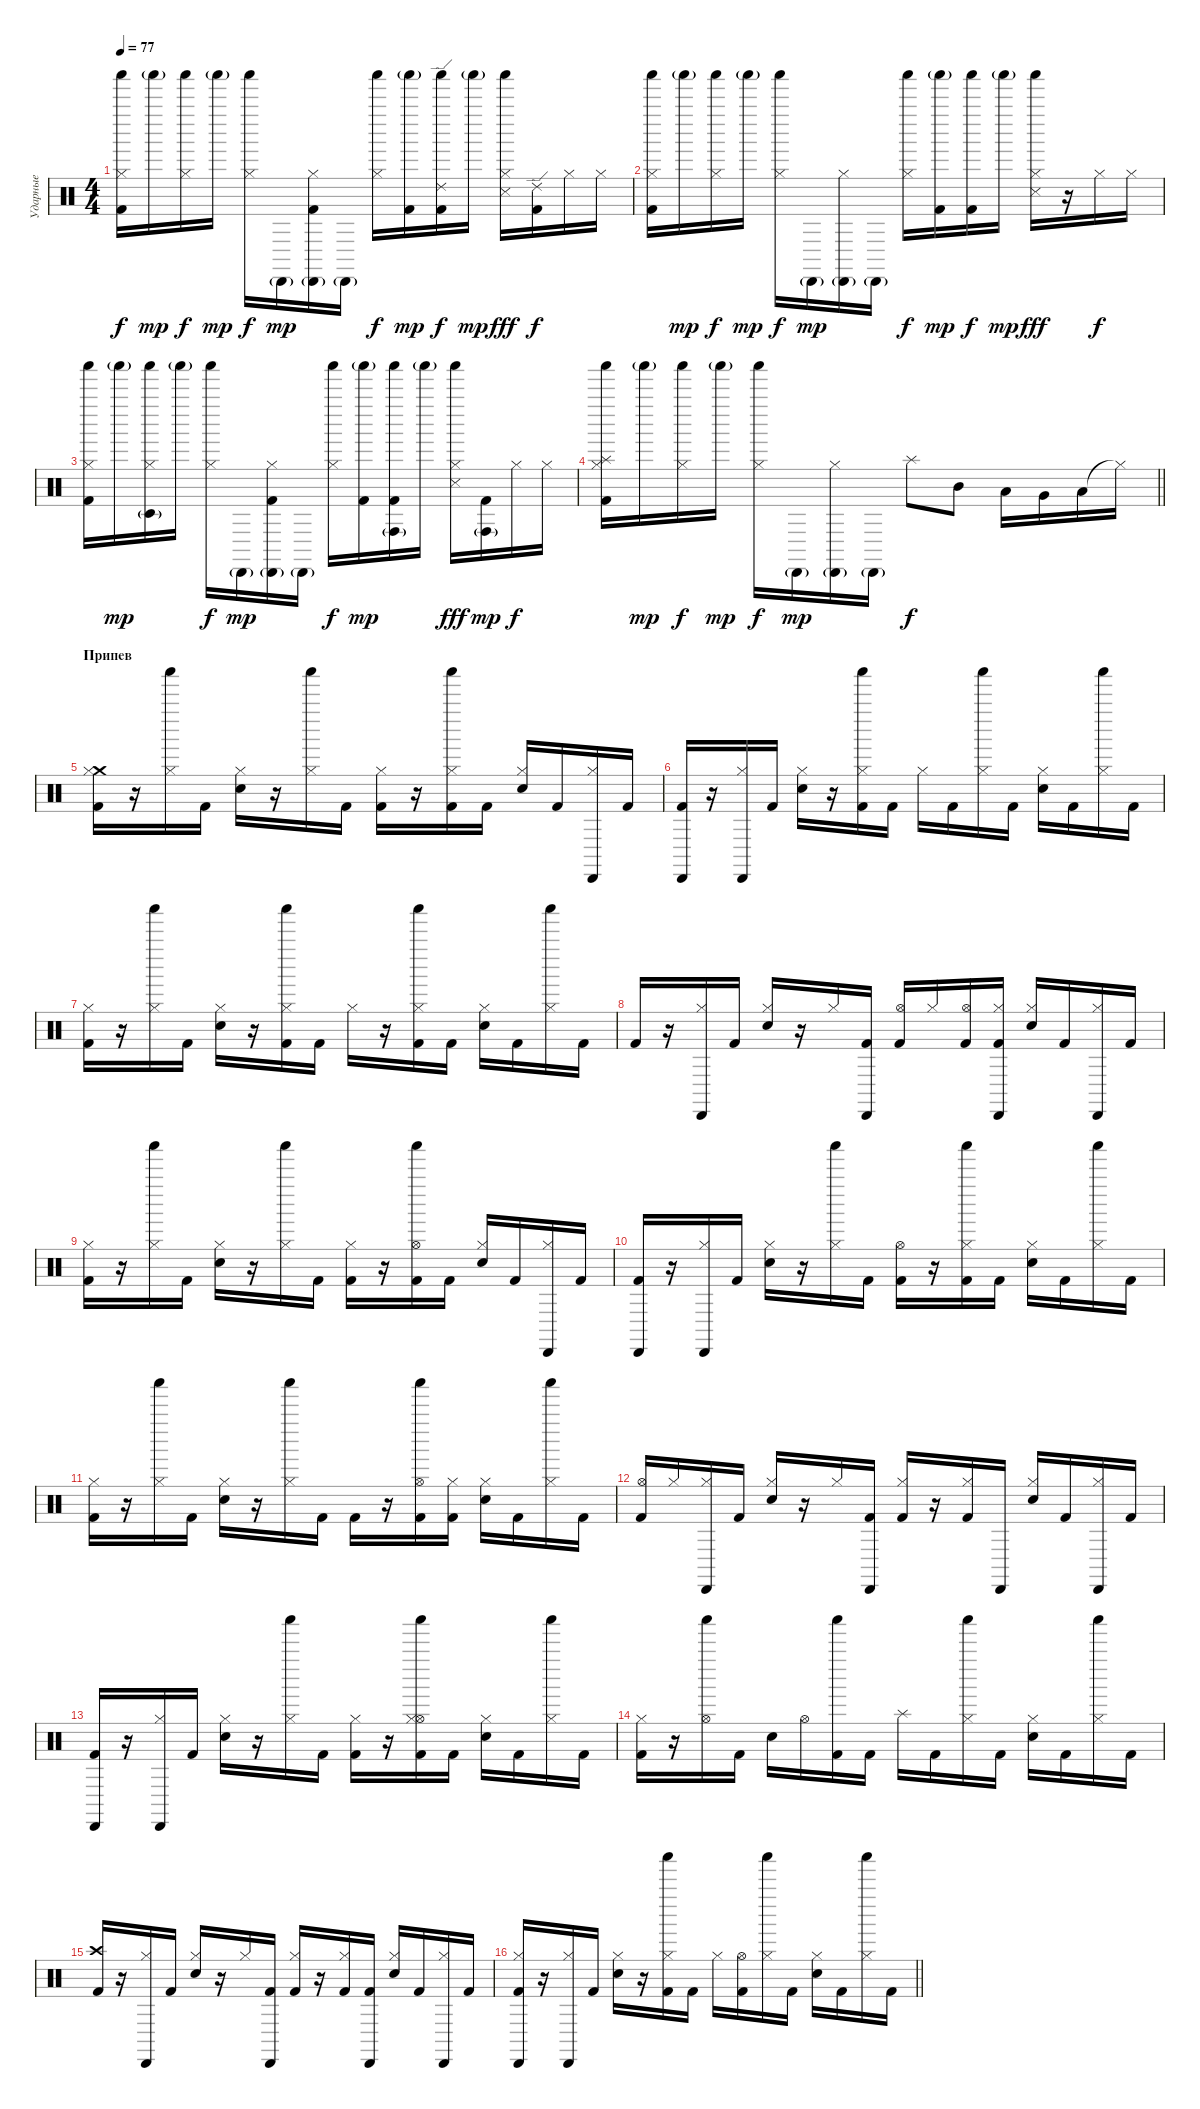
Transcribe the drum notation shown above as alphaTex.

\track ("Ударные" "Ударные") {instrument percussion}
\staff {score}
\articulation defaults
\ts (4 4)
\tempo 77
\clef neutral
\ks c
("Kick (hit) 2" "Shaker (hit)" "Hi-Hat (closed)").16{dy f} "Shaker (hit)"{g}.16{dy mp} ("Shaker (hit)" "Hi-Hat (closed)").16{dy f} "Shaker (hit)"{g}.16{dy mp} ("Shaker (hit)" "Hi-Hat (closed)").16{dy f} "Cabasa (hit)"{g}.16{dy mp} ("Kick (hit) 2" "Cabasa (hit)"{g} "Hi-Hat (closed)").16 "Cabasa (hit)"{g}.16 ("Shaker (hit)" "Hi-Hat (closed)").16{dy f} ("Shaker (hit)"{g} "Kick (hit) 2").16{dy mp} ("Ride (edge) 2" "Shaker (hit)" "Kick (hit) 2").16{dy f} "Shaker (hit)"{g}.16{dy mp} ("Snare (side stick) 3" "Shaker (hit)" "Hi-Hat (closed)").16{dy fff} ("Ride (edge) 2" "Kick (hit) 2").16{dy f} "Hi-Hat (closed)".16 "Hi-Hat (closed)".16 |
("Kick (hit) 2" "Shaker (hit)" "Hi-Hat (closed)").16 "Shaker (hit)"{g}.16{dy mp} ("Shaker (hit)" "Hi-Hat (closed)").16{dy f} "Shaker (hit)"{g}.16{dy mp} ("Shaker (hit)" "Hi-Hat (closed)").16{dy f} "Cabasa (hit)"{g}.16{dy mp} ("Cabasa (hit)"{g} "Hi-Hat (closed)").16 "Cabasa (hit)"{g}.16 ("Shaker (hit)" "Hi-Hat (closed)").16{dy f} ("Shaker (hit)"{g} "Kick (hit) 2").16{dy mp} ("Shaker (hit)" "Kick (hit) 2").16{dy f} "Shaker (hit)"{g}.16{dy mp} ("Snare (side stick) 3" "Shaker (hit)" "Hi-Hat (closed)").16{dy fff} r.16 "Hi-Hat (closed)".16{dy f} "Hi-Hat (closed)".16 |
("Kick (hit) 2" "Shaker (hit)" "Hi-Hat (closed)").16 "Shaker (hit)"{g}.16{dy mp} ("Timbale low (hit)"{g} "Shaker (hit)" "Hi-Hat (closed)").16 "Shaker (hit)"{g}.16 ("Shaker (hit)" "Hi-Hat (closed)").16{dy f} "Cabasa (hit)"{g}.16{dy mp} ("Kick (hit) 2" "Cabasa (hit)"{g} "Hi-Hat (closed)").16 "Cabasa (hit)"{g}.16 ("Shaker (hit)" "Hi-Hat (closed)").16{dy f} ("Shaker (hit)"{g} "Kick (hit) 2").16{dy mp} ("Conga high (hit)"{g} "Shaker (hit)" "Kick (hit) 2").16 "Shaker (hit)"{g}.16 ("Snare (side stick) 3" "Shaker (hit)" "Hi-Hat (closed)").16{dy fff} ("Conga high (hit)"{g} "Kick (hit) 2").16{dy mp} "Hi-Hat (closed)".16{dy f} "Hi-Hat (closed)".16 |
\barLineRight lightlight
("Splash (hit)" "Kick (hit) 2" "Shaker (hit)" "Hi-Hat (closed)").16 "Shaker (hit)"{g}.16{dy mp} ("Shaker (hit)" "Hi-Hat (closed)").16{dy f} "Shaker (hit)"{g}.16{dy mp} ("Shaker (hit)" "Hi-Hat (closed)").16{dy f} "Cabasa (hit)"{g}.16{dy mp} ("Cabasa (hit)"{g} "Hi-Hat (closed)").16 "Cabasa (hit)"{g}.16 "Splash (hit)".8{dy f} "Mid Tom (hit)".8 "Low Tom (hit)".16 "Very Low Tom (hit)".16 "Low Floor Tom (hit)".16 "Hi-Hat (closed)"{t}.16 |
\section ("" "Припев")
("Crash medium (hit)" "Kick (hit) 2" "Hi-Hat (closed)").16 r.16 ("Hi-Hat (closed)" "Shaker (hit)").16 "Kick (hit) 2".16 ("Electric Snare (hit)" "Hi-Hat (closed)").16 r.16 ("Hi-Hat (closed)" "Shaker (hit)").16 "Kick (hit) 2".16 ("Kick (hit) 2" "Hi-Hat (closed)").16 r.16 ("Kick (hit) 2" "Hi-Hat (closed)" "Shaker (hit)").16 "Kick (hit) 2".16 ("Electric Snare (hit)" "Hi-Hat (closed)").16 "Kick (hit) 2".16 ("Hi-Hat (closed)" "Cabasa (hit)").16 "Kick (hit) 2".16 |
("Kick (hit) 2" "Cabasa (hit)").16 r.16 ("Hi-Hat (closed)" "Cabasa (hit)").16 "Kick (hit) 2".16 ("Electric Snare (hit)" "Hi-Hat (closed)").16 r.16 ("Kick (hit) 2" "Hi-Hat (closed)" "Shaker (hit)").16 "Kick (hit) 2".16 "Hi-Hat (closed)".16 "Kick (hit) 2".16 ("Hi-Hat (closed)" "Shaker (hit)").16 "Kick (hit) 2".16 ("Electric Snare (hit)" "Hi-Hat (closed)").16 "Kick (hit) 2".16 ("Hi-Hat (closed)" "Shaker (hit)").16 "Kick (hit) 2".16 |
("Kick (hit) 2" "Hi-Hat (closed)").16 r.16 ("Hi-Hat (closed)" "Shaker (hit)").16 "Kick (hit) 2".16 ("Electric Snare (hit)" "Hi-Hat (closed)").16 r.16 ("Kick (hit) 2" "Hi-Hat (closed)" "Shaker (hit)").16 "Kick (hit) 2".16 "Hi-Hat (closed)".16 r.16 ("Kick (hit) 2" "Hi-Hat (closed)" "Shaker (hit)").16 "Kick (hit) 2".16 ("Electric Snare (hit)" "Hi-Hat (closed)").16 "Kick (hit) 2".16 ("Hi-Hat (closed)" "Shaker (hit)").16 "Kick (hit) 2".16 |
"Kick (hit) 2".16 r.16 ("Hi-Hat (closed)" "Cabasa (hit)").16 "Kick (hit) 2".16 ("Electric Snare (hit)" "Hi-Hat (closed)").16 r.16 "Hi-Hat (closed)".16 ("Kick (hit) 2" "Cabasa (hit)").16 ("Hi-Hat (open)" "Kick (hit) 2").16 "Hi-Hat (closed)".16 ("Hi-Hat (open)" "Kick (hit) 2").16 ("Hi-Hat (closed)" "Kick (hit) 2" "Cabasa (hit)").16 ("Electric Snare (hit)" "Hi-Hat (closed)").16 "Kick (hit) 2".16 ("Hi-Hat (closed)" "Cabasa (hit)").16 "Kick (hit) 2".16 |
("Kick (hit) 2" "Hi-Hat (closed)").16 r.16 ("Hi-Hat (closed)" "Shaker (hit)").16 "Kick (hit) 2".16 ("Electric Snare (hit)" "Hi-Hat (closed)").16 r.16 ("Hi-Hat (closed)" "Shaker (hit)").16 "Kick (hit) 2".16 ("Kick (hit) 2" "Hi-Hat (closed)").16 r.16 ("Hi-Hat (open)" "Kick (hit) 2" "Shaker (hit)").16 "Kick (hit) 2".16 ("Electric Snare (hit)" "Hi-Hat (closed)").16 "Kick (hit) 2".16 ("Hi-Hat (closed)" "Cabasa (hit)").16 "Kick (hit) 2".16 |
("Kick (hit) 2" "Cabasa (hit)").16 r.16 ("Hi-Hat (closed)" "Cabasa (hit)").16 "Kick (hit) 2".16 ("Electric Snare (hit)" "Hi-Hat (closed)").16 r.16 ("Hi-Hat (closed)" "Shaker (hit)").16 "Kick (hit) 2".16 ("Hi-Hat (open)" "Kick (hit) 2").16 r.16 ("Kick (hit) 2" "Hi-Hat (closed)" "Shaker (hit)").16 "Kick (hit) 2".16 ("Electric Snare (hit)" "Hi-Hat (closed)").16 "Kick (hit) 2".16 ("Hi-Hat (closed)" "Shaker (hit)").16 "Kick (hit) 2".16 |
("Kick (hit) 2" "Hi-Hat (closed)").16 r.16 ("Hi-Hat (closed)" "Shaker (hit)").16 "Kick (hit) 2".16 ("Electric Snare (hit)" "Hi-Hat (closed)").16 r.16 ("Hi-Hat (closed)" "Shaker (hit)").16 "Kick (hit) 2".16 "Kick (hit) 2".16 r.16 ("Hi-Hat (open)" "Kick (hit) 2" "Shaker (hit)").16 ("Kick (hit) 2" "Hi-Hat (closed)").16 ("Electric Snare (hit)" "Hi-Hat (closed)").16 "Kick (hit) 2".16 ("Hi-Hat (closed)" "Shaker (hit)").16 "Kick (hit) 2".16 |
("Hi-Hat (open)" "Kick (hit) 2").16 "Hi-Hat (closed)".16 ("Hi-Hat (closed)" "Cabasa (hit)").16 "Kick (hit) 2".16 ("Electric Snare (hit)" "Hi-Hat (closed)").16 r.16 "Hi-Hat (closed)".16 ("Kick (hit) 2" "Cabasa (hit)").16 ("Hi-Hat (closed)" "Kick (hit) 2").16 r.16 ("Hi-Hat (closed)" "Kick (hit) 2").16 "Cabasa (hit)".16 ("Electric Snare (hit)" "Hi-Hat (closed)").16 "Kick (hit) 2".16 ("Hi-Hat (closed)" "Cabasa (hit)").16 "Kick (hit) 2".16 |
("Kick (hit) 2" "Cabasa (hit)").16 r.16 ("Hi-Hat (closed)" "Cabasa (hit)").16 "Kick (hit) 2".16 ("Electric Snare (hit)" "Hi-Hat (closed)").16 r.16 ("Hi-Hat (closed)" "Shaker (hit)").16 "Kick (hit) 2".16 ("Kick (hit) 2" "Hi-Hat (closed)").16 r.16 ("Hi-Hat (open)" "Kick (hit) 2" "Hi-Hat (closed)" "Shaker (hit)").16 "Kick (hit) 2".16 ("Electric Snare (hit)" "Hi-Hat (closed)").16 "Kick (hit) 2".16 ("Hi-Hat (closed)" "Shaker (hit)").16 "Kick (hit) 2".16 |
("Kick (hit) 2" "Hi-Hat (closed)").16 r.16 ("Hi-Hat (open)" "Shaker (hit)").16 "Kick (hit) 2".16 "Electric Snare (hit)".16 "Hi-Hat (open)".16 ("Kick (hit) 2" "Shaker (hit)").16 "Kick (hit) 2".16 "Splash (hit)".16 "Kick (hit) 2".16 ("Hi-Hat (closed)" "Shaker (hit)").16 "Kick (hit) 2".16 ("Electric Snare (hit)" "Hi-Hat (closed)").16 "Kick (hit) 2".16 ("Hi-Hat (closed)" "Shaker (hit)").16 "Kick (hit) 2".16 |
("Crash high (hit)" "Kick (hit) 2").16 r.16 ("Hi-Hat (closed)" "Cabasa (hit)").16 "Kick (hit) 2".16 ("Electric Snare (hit)" "Hi-Hat (closed)").16 r.16 "Hi-Hat (closed)".16 ("Kick (hit) 2" "Cabasa (hit)").16 ("Kick (hit) 2" "Hi-Hat (closed)").16 r.16 ("Kick (hit) 2" "Hi-Hat (closed)").16 ("Kick (hit) 2" "Cabasa (hit)").16 ("Electric Snare (hit)" "Hi-Hat (closed)").16 "Kick (hit) 2".16 ("Hi-Hat (closed)" "Cabasa (hit)").16 "Kick (hit) 2".16 |
\barLineRight lightlight
("Kick (hit) 2" "Hi-Hat (closed)" "Cabasa (hit)").16 r.16 ("Hi-Hat (closed)" "Cabasa (hit)").16 "Kick (hit) 2".16 ("Electric Snare (hit)" "Hi-Hat (closed)").16 r.16 ("Kick (hit) 2" "Hi-Hat (closed)" "Shaker (hit)").16 "Kick (hit) 2".16 "Hi-Hat (closed)".16 ("Hi-Hat (open)" "Kick (hit) 2").16 ("Hi-Hat (closed)" "Shaker (hit)").16 "Kick (hit) 2".16 ("Electric Snare (hit)" "Hi-Hat (closed)").16 "Kick (hit) 2".16 ("Hi-Hat (closed)" "Shaker (hit)").16 "Kick (hit) 2".16
